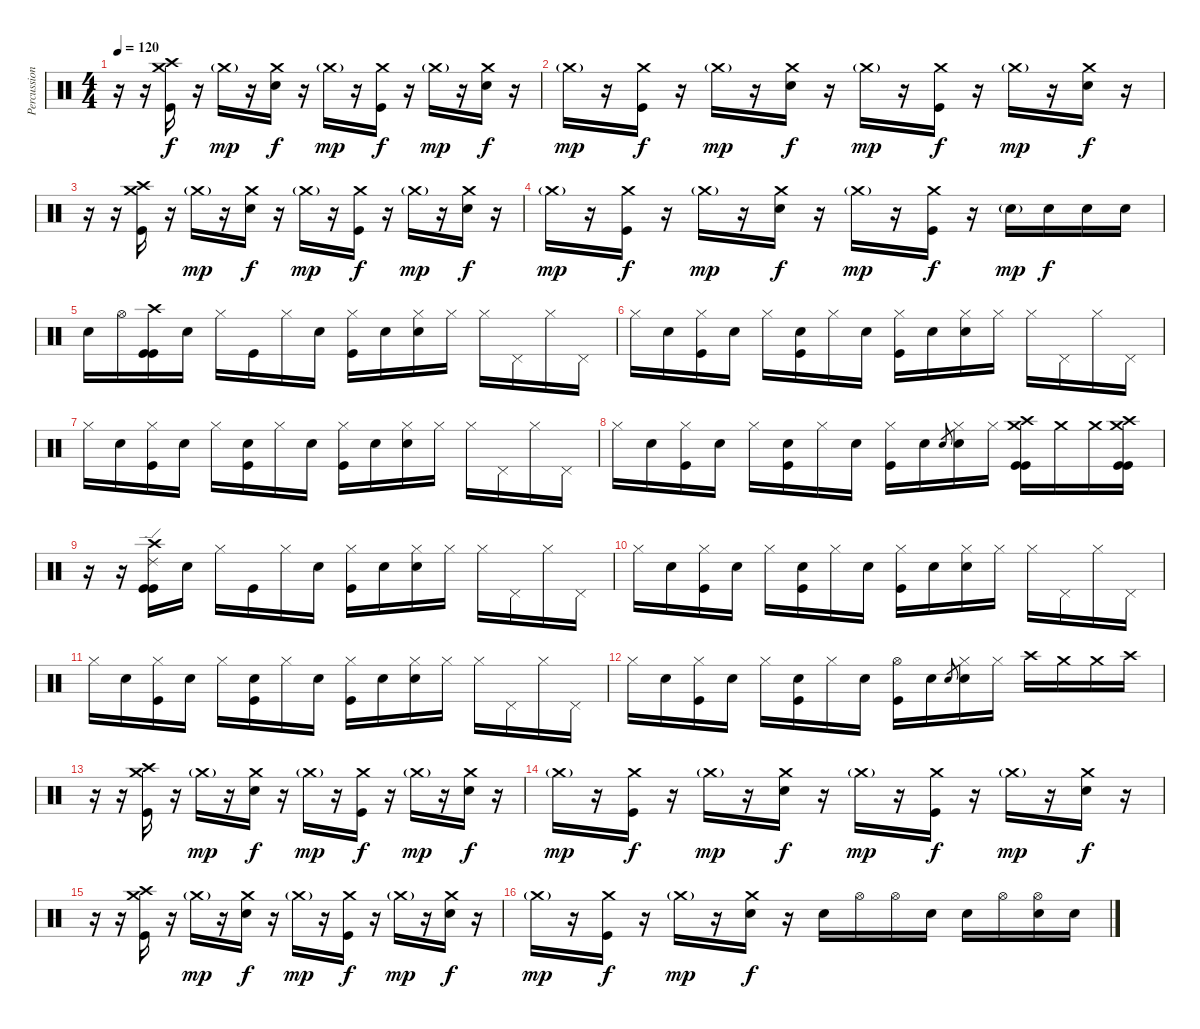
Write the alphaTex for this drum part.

\track ("Percussion" "Percussion") {instrument percussion}
\staff {score}
\articulation defaults
\ts (4 4)
\tempo 120
\clef neutral
\ks c
r.16{dy f} r.16 ("Crash high (hit)" "Crash medium (hit)" "Kick (hit)").16 r.16 "Crash medium (hit)"{g}.16{dy mp} r.16 ("Crash medium (hit)" "Snare (hit) 2").16{dy f} r.16 "Crash medium (hit)"{g}.16{dy mp} r.16 ("Crash medium (hit)" "Kick (hit)").16{dy f} r.16 "Crash medium (hit)"{g}.16{dy mp} r.16 ("Crash medium (hit)" "Snare (hit) 2").16{dy f} r.16 |
"Crash medium (hit)"{g}.16{dy mp} r.16 ("Crash medium (hit)" "Kick (hit)").16{dy f} r.16 "Crash medium (hit)"{g}.16{dy mp} r.16 ("Crash medium (hit)" "Snare (hit) 2").16{dy f} r.16 "Crash medium (hit)"{g}.16{dy mp} r.16 ("Crash medium (hit)" "Kick (hit)").16{dy f} r.16 "Crash medium (hit)"{g}.16{dy mp} r.16 ("Crash medium (hit)" "Snare (hit) 2").16{dy f} r.16 |
r.16 r.16 ("Crash high (hit)" "Crash medium (hit)" "Kick (hit)").16 r.16 "Crash medium (hit)"{g}.16{dy mp} r.16 ("Crash medium (hit)" "Snare (hit) 2").16{dy f} r.16 "Crash medium (hit)"{g}.16{dy mp} r.16 ("Crash medium (hit)" "Kick (hit)").16{dy f} r.16 "Crash medium (hit)"{g}.16{dy mp} r.16 ("Crash medium (hit)" "Snare (hit) 2").16{dy f} r.16 |
"Crash medium (hit)"{g}.16{dy mp} r.16 ("Crash medium (hit)" "Kick (hit)").16{dy f} r.16 "Crash medium (hit)"{g}.16{dy mp} r.16 ("Crash medium (hit)" "Snare (hit) 2").16{dy f} r.16 "Crash medium (hit)"{g}.16{dy mp} r.16 ("Crash medium (hit)" "Kick (hit)").16{dy f} r.16 "Snare (hit) 2"{g}.16{dy mp} "Snare (hit) 2".16{dy f} "Snare (hit) 2".16 "Snare (hit) 2".16 |
"Snare (hit) 2".16 "Hi-Hat (open)".16 ("Crash high (hit)" "Kick (hit)" "Kick (hit)").16 "Snare (hit)"{x}.16 "Hi-Hat (closed)".16 "Kick (hit)".16 "Hi-Hat (closed)".16 "Snare (hit)"{x}.16 ("Hi-Hat (closed)" "Kick (hit)").16 "Snare (hit)"{x}.16 ("Hi-Hat (closed)" "Snare (hit) 2").16 "Hi-Hat (closed)"{x}.16 "Hi-Hat (closed)".16 "Pedal Hi-Hat (hit)"{x}.16 "Hi-Hat (closed)".16 "Pedal Hi-Hat (hit)"{x}.16 |
"Hi-Hat (closed)".16 "Snare (hit)"{x}.16 ("Hi-Hat (closed)" "Kick (hit)").16 "Snare (hit)"{x}.16 "Hi-Hat (closed)".16 ("Snare (hit)"{x} "Kick (hit)").16 "Hi-Hat (closed)".16 "Snare (hit)"{x}.16 ("Hi-Hat (closed)" "Kick (hit)").16 "Snare (hit)"{x}.16 ("Hi-Hat (closed)" "Snare (hit) 2").16 "Hi-Hat (closed)"{x}.16 "Hi-Hat (closed)".16 "Pedal Hi-Hat (hit)"{x}.16 "Hi-Hat (closed)".16 "Pedal Hi-Hat (hit)"{x}.16 |
"Hi-Hat (closed)".16 "Snare (hit)"{x}.16 ("Hi-Hat (closed)" "Kick (hit)").16 "Snare (hit)"{x}.16 "Hi-Hat (closed)".16 ("Snare (hit)"{x} "Kick (hit)").16 "Hi-Hat (closed)".16 "Snare (hit)"{x}.16 ("Hi-Hat (closed)" "Kick (hit)").16 "Snare (hit)"{x}.16 ("Hi-Hat (closed)" "Snare (hit) 2").16 "Hi-Hat (closed)"{x}.16 "Hi-Hat (closed)".16 "Pedal Hi-Hat (hit)"{x}.16 "Hi-Hat (closed)".16 "Pedal Hi-Hat (hit)"{x}.16 |
"Hi-Hat (closed)".16 "Snare (hit)"{x}.16 ("Hi-Hat (closed)" "Kick (hit)").16 "Snare (hit)"{x}.16 "Hi-Hat (closed)".16 ("Snare (hit)"{x} "Kick (hit)").16 "Hi-Hat (closed)".16 "Snare (hit)"{x}.16 ("Hi-Hat (closed)" "Kick (hit)").16 "Snare (hit)"{x}.16 "Snare (hit) 2".8{gr} ("Hi-Hat (closed)" "Snare (hit) 2").16 "Hi-Hat (closed)"{x}.16 ("Crash medium (hit)" "Crash high (hit)" "Kick (hit)" "Kick (hit)").16 "Crash medium (hit)"{x}.16 "Crash medium (hit)"{x}.16 ("Crash medium (hit)" "Crash high (hit)" "Kick (hit)" "Kick (hit)").16 |
r.16 r.16 ("Ride (edge) 2" "Crash high (hit)" "Kick (hit)" "Kick (hit)").16 "Snare (hit)"{x}.16 "Hi-Hat (closed)".16 "Kick (hit)".16 "Hi-Hat (closed)".16 "Snare (hit)"{x}.16 ("Hi-Hat (closed)" "Kick (hit)").16 "Snare (hit)"{x}.16 ("Hi-Hat (closed)" "Snare (hit) 2").16 "Hi-Hat (closed)"{x}.16 "Hi-Hat (closed)".16 "Pedal Hi-Hat (hit)"{x}.16 "Hi-Hat (closed)".16 "Pedal Hi-Hat (hit)"{x}.16 |
"Hi-Hat (closed)".16 "Snare (hit)"{x}.16 ("Hi-Hat (closed)" "Kick (hit)").16 "Snare (hit)"{x}.16 "Hi-Hat (closed)".16 ("Snare (hit)"{x} "Kick (hit)").16 "Hi-Hat (closed)".16 "Snare (hit)"{x}.16 ("Hi-Hat (closed)" "Kick (hit)").16 "Snare (hit)"{x}.16 ("Hi-Hat (closed)" "Snare (hit) 2").16 "Hi-Hat (closed)"{x}.16 "Hi-Hat (closed)".16 "Pedal Hi-Hat (hit)"{x}.16 "Hi-Hat (closed)".16 "Pedal Hi-Hat (hit)"{x}.16 |
"Hi-Hat (closed)".16 "Snare (hit)"{x}.16 ("Hi-Hat (closed)" "Kick (hit)").16 "Snare (hit)"{x}.16 "Hi-Hat (closed)".16 ("Snare (hit)"{x} "Kick (hit)").16 "Hi-Hat (closed)".16 "Snare (hit)"{x}.16 ("Hi-Hat (closed)" "Kick (hit)").16 "Snare (hit)"{x}.16 ("Hi-Hat (closed)" "Snare (hit) 2").16 "Hi-Hat (closed)"{x}.16 "Hi-Hat (closed)".16 "Pedal Hi-Hat (hit)"{x}.16 "Hi-Hat (closed)".16 "Pedal Hi-Hat (hit)"{x}.16 |
"Hi-Hat (closed)".16 "Snare (hit)"{x}.16 ("Hi-Hat (closed)" "Kick (hit)").16 "Snare (hit)"{x}.16 "Hi-Hat (closed)".16 ("Snare (hit)"{x} "Kick (hit)").16 "Hi-Hat (closed)".16 "Snare (hit)"{x}.16 ("Hi-Hat (open)" "Kick (hit)").16 "Snare (hit)"{x}.16 "Snare (hit) 2".8{gr} ("Hi-Hat (closed)" "Snare (hit) 2").16 "Hi-Hat (closed)"{x}.16 "Crash high (hit)"{x}.16 "Crash medium (hit)"{x}.16 "Crash medium (hit)"{x}.16 "Crash high (hit)"{x}.16 |
r.16 r.16 ("Crash high (hit)" "Crash medium (hit)" "Kick (hit)").16 r.16 "Crash medium (hit)"{g}.16{dy mp} r.16 ("Crash medium (hit)" "Snare (hit) 2").16{dy f} r.16 "Crash medium (hit)"{g}.16{dy mp} r.16 ("Crash medium (hit)" "Kick (hit)").16{dy f} r.16 "Crash medium (hit)"{g}.16{dy mp} r.16 ("Crash medium (hit)" "Snare (hit) 2").16{dy f} r.16 |
"Crash medium (hit)"{g}.16{dy mp} r.16 ("Crash medium (hit)" "Kick (hit)").16{dy f} r.16 "Crash medium (hit)"{g}.16{dy mp} r.16 ("Crash medium (hit)" "Snare (hit) 2").16{dy f} r.16 "Crash medium (hit)"{g}.16{dy mp} r.16 ("Crash medium (hit)" "Kick (hit)").16{dy f} r.16 "Crash medium (hit)"{g}.16{dy mp} r.16 ("Crash medium (hit)" "Snare (hit) 2").16{dy f} r.16 |
r.16 r.16 ("Crash high (hit)" "Crash medium (hit)" "Kick (hit)").16 r.16 "Crash medium (hit)"{g}.16{dy mp} r.16 ("Crash medium (hit)" "Snare (hit) 2").16{dy f} r.16 "Crash medium (hit)"{g}.16{dy mp} r.16 ("Crash medium (hit)" "Kick (hit)").16{dy f} r.16 "Crash medium (hit)"{g}.16{dy mp} r.16 ("Crash medium (hit)" "Snare (hit) 2").16{dy f} r.16 |
"Crash medium (hit)"{g}.16{dy mp} r.16 ("Crash medium (hit)" "Kick (hit)").16{dy f} r.16 "Crash medium (hit)"{g}.16{dy mp} r.16 ("Crash medium (hit)" "Snare (hit) 2").16{dy f} r.16 "Snare (hit) 2".16 "Hi-Hat (open)".16 "Hi-Hat (open)".16 "Snare (hit) 2".16 "Snare (hit) 2".16 "Hi-Hat (open)".16 ("Hi-Hat (open)" "Snare (hit) 2").16 "Snare (hit) 2".16
